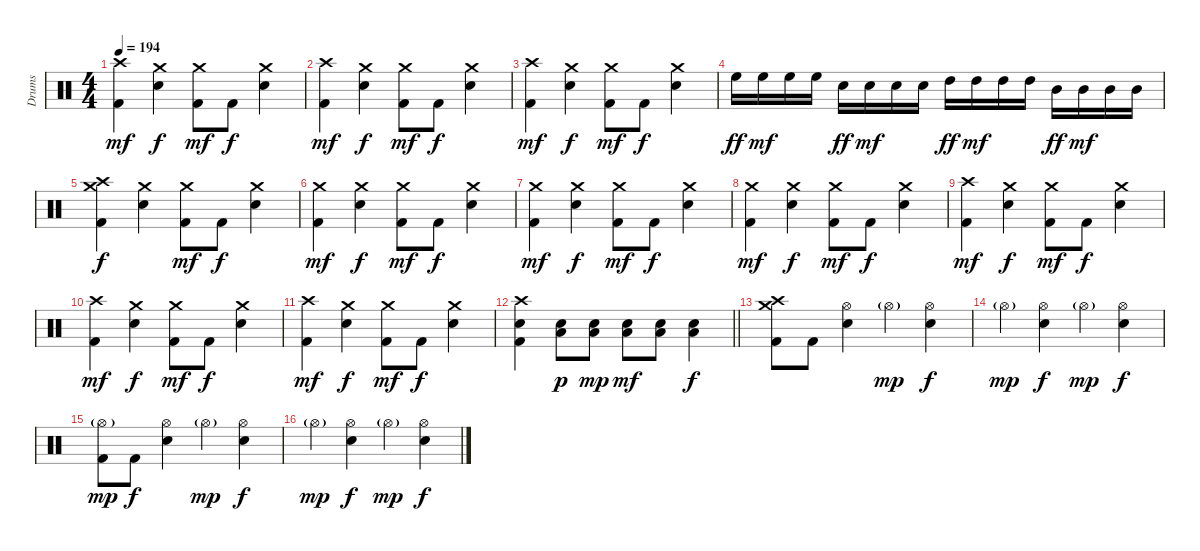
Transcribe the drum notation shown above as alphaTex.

\track ("Drums" "Drums") {instrument percussion}
\staff {score}
\articulation defaults
\ts (4 4)
\tempo 194
\clef neutral
\ks c
("Crash high (hit)" "Kick (hit) 2").4{dy mf} ("Crash medium (hit)" "Electric Snare (hit)").4{dy f} ("Crash medium (hit)" "Kick (hit) 2").8{dy mf} "Kick (hit) 2".8{dy f} ("Crash medium (hit)" "Electric Snare (hit)").4 |
("Crash high (hit)" "Kick (hit) 2").4{dy mf} ("Crash medium (hit)" "Electric Snare (hit)").4{dy f} ("Crash medium (hit)" "Kick (hit) 2").8{dy mf} "Kick (hit) 2".8{dy f} ("Crash medium (hit)" "Electric Snare (hit)").4 |
("Crash high (hit)" "Kick (hit) 2").4{dy mf} ("Crash medium (hit)" "Electric Snare (hit)").4{dy f} ("Crash medium (hit)" "Kick (hit) 2").8{dy mf} "Kick (hit) 2".8{dy f} ("Crash medium (hit)" "Electric Snare (hit)").4 |
"High Floor Tom (hit)".16{dy ff} "High Floor Tom (hit)".16{dy mf} "High Floor Tom (hit)".16 "High Floor Tom (hit)".16 "Electric Snare (hit)".16{dy ff} "Electric Snare (hit)".16{dy mf} "Electric Snare (hit)".16 "Electric Snare (hit)".16 "High Tom (hit)".16{dy ff} "High Tom (hit)".16{dy mf} "High Tom (hit)".16 "High Tom (hit)".16 "Mid Tom (hit)".16{dy ff} "Mid Tom (hit)".16{dy mf} "Mid Tom (hit)".16 "Mid Tom (hit)".16 |
("Crash high (hit)" "Crash medium (hit)" "Kick (hit) 2").4{dy f} ("Crash medium (hit)" "Electric Snare (hit)").4 ("Crash medium (hit)" "Kick (hit) 2").8{dy mf} "Kick (hit) 2".8{dy f} ("Crash medium (hit)" "Electric Snare (hit)").4 |
("Crash medium (hit)" "Kick (hit) 2").4{dy mf} ("Crash medium (hit)" "Electric Snare (hit)").4{dy f} ("Crash medium (hit)" "Kick (hit) 2").8{dy mf} "Kick (hit) 2".8{dy f} ("Crash medium (hit)" "Electric Snare (hit)").4 |
("Crash medium (hit)" "Kick (hit) 2").4{dy mf} ("Crash medium (hit)" "Electric Snare (hit)").4{dy f} ("Crash medium (hit)" "Kick (hit) 2").8{dy mf} "Kick (hit) 2".8{dy f} ("Crash medium (hit)" "Electric Snare (hit)").4 |
("Crash medium (hit)" "Kick (hit) 2").4{dy mf} ("Crash medium (hit)" "Electric Snare (hit)").4{dy f} ("Crash medium (hit)" "Kick (hit) 2").8{dy mf} "Kick (hit) 2".8{dy f} ("Crash medium (hit)" "Electric Snare (hit)").4 |
("Crash high (hit)" "Kick (hit) 2").4{dy mf} ("Crash medium (hit)" "Electric Snare (hit)").4{dy f} ("Crash medium (hit)" "Kick (hit) 2").8{dy mf} "Kick (hit) 2".8{dy f} ("Crash medium (hit)" "Electric Snare (hit)").4 |
("Crash high (hit)" "Kick (hit) 2").4{dy mf} ("Crash medium (hit)" "Electric Snare (hit)").4{dy f} ("Crash medium (hit)" "Kick (hit) 2").8{dy mf} "Kick (hit) 2".8{dy f} ("Crash medium (hit)" "Electric Snare (hit)").4 |
("Crash high (hit)" "Kick (hit) 2").4{dy mf} ("Crash medium (hit)" "Electric Snare (hit)").4{dy f} ("Crash medium (hit)" "Kick (hit) 2").8{dy mf} "Kick (hit) 2".8{dy f} ("Crash medium (hit)" "Electric Snare (hit)").4 |
\barLineRight lightlight
("Crash high (hit)" "Electric Snare (hit)" "Kick (hit) 2").4 ("Low Tom (hit)" "Electric Snare (hit)").8{dy p} ("Low Tom (hit)" "Electric Snare (hit)").8{dy mp} ("Low Tom (hit)" "Electric Snare (hit)").8{dy mf} ("Low Tom (hit)" "Electric Snare (hit)").8 ("Low Tom (hit)" "Electric Snare (hit)").4{dy f} |
("Crash high (hit)" "Crash medium (hit)" "Kick (hit) 2").8 "Kick (hit) 2".8 ("Hi-Hat (open)" "Electric Snare (hit)").4 "Hi-Hat (open)"{g}.4{dy mp} ("Hi-Hat (open)" "Electric Snare (hit)").4{dy f} |
"Hi-Hat (open)"{g}.4{dy mp} ("Hi-Hat (open)" "Electric Snare (hit)").4{dy f} "Hi-Hat (open)"{g}.4{dy mp} ("Hi-Hat (open)" "Electric Snare (hit)").4{dy f} |
("Hi-Hat (open)"{g} "Kick (hit) 2").8{dy mp} "Kick (hit) 2".8{dy f} ("Hi-Hat (open)" "Electric Snare (hit)").4 "Hi-Hat (open)"{g}.4{dy mp} ("Hi-Hat (open)" "Electric Snare (hit)").4{dy f} |
"Hi-Hat (open)"{g}.4{dy mp} ("Hi-Hat (open)" "Electric Snare (hit)").4{dy f} "Hi-Hat (open)"{g}.4{dy mp} ("Hi-Hat (open)" "Electric Snare (hit)").4{dy f}
